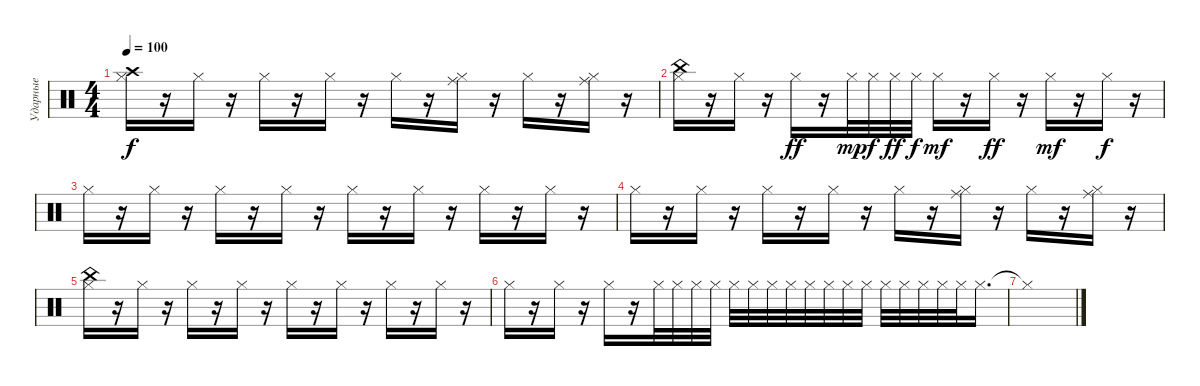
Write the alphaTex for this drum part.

\track ("Ударные" "Ударные") {instrument percussion}
\staff {score}
\articulation defaults
\ts (4 4)
\tempo 100
\clef neutral
\ks c
("Crash high (hit)" "Hi-Hat (closed)").16{dy f} r.16 "Hi-Hat (closed)".16 r.16 "Hi-Hat (closed)".16 r.16 "Hi-Hat (closed)".16 r.16 "Hi-Hat (closed)".16 r.16 ("Ride (middle)" "Hi-Hat (closed)").16 r.16 "Hi-Hat (closed)".16 r.16 ("Ride (middle)" "Hi-Hat (closed)").16 r.16 |
("China (hit)" "Hi-Hat (closed)").16 r.16 "Hi-Hat (closed)".16 r.16 "Hi-Hat (closed)".16{dy ff} r.16 "Hi-Hat (closed)".32{dy mp} "Hi-Hat (closed)".32{dy f} "Hi-Hat (closed)".32{dy ff} "Hi-Hat (closed)".32{dy f} "Hi-Hat (closed)".16{dy mf} r.16 "Hi-Hat (closed)".16{dy ff} r.16 "Hi-Hat (closed)".16{dy mf} r.16 "Hi-Hat (closed)".16{dy f} r.16 |
"Hi-Hat (closed)".16 r.16 "Hi-Hat (closed)".16 r.16 "Hi-Hat (closed)".16 r.16 "Hi-Hat (closed)".16 r.16 "Hi-Hat (closed)".16 r.16 "Hi-Hat (closed)".16 r.16 "Hi-Hat (closed)".16 r.16 "Hi-Hat (closed)".16 r.16 |
"Hi-Hat (closed)".16 r.16 "Hi-Hat (closed)".16 r.16 "Hi-Hat (closed)".16 r.16 "Hi-Hat (closed)".16 r.16 "Hi-Hat (closed)".16 r.16 ("Ride (middle)" "Hi-Hat (closed)").16 r.16 "Hi-Hat (closed)".16 r.16 ("Ride (middle)" "Hi-Hat (closed)").16 r.16 |
("China (hit)" "Hi-Hat (closed)").16 r.16 "Hi-Hat (closed)".16 r.16 "Hi-Hat (closed)".16 r.16 "Hi-Hat (closed)".16 r.16 "Hi-Hat (closed)".16 r.16 "Hi-Hat (closed)".16 r.16 "Hi-Hat (closed)".16 r.16 "Hi-Hat (closed)".16 r.16 |
"Hi-Hat (closed)".16 r.16 "Hi-Hat (closed)".16 r.16 "Hi-Hat (closed)".16 r.16 "Hi-Hat (closed)".32 "Hi-Hat (closed)".32 "Hi-Hat (closed)".32 "Hi-Hat (closed)".32 "Hi-Hat (closed)".32 "Hi-Hat (closed)".32 "Hi-Hat (closed)".32 "Hi-Hat (closed)".32 "Hi-Hat (closed)".32 "Hi-Hat (closed)".32 "Hi-Hat (closed)".32 "Hi-Hat (closed)".32 "Hi-Hat (closed)".32 "Hi-Hat (closed)".32 "Hi-Hat (closed)".32 "Hi-Hat (closed)".32 "Hi-Hat (closed)".32 "Hi-Hat (closed)".16{d} |
"Hi-Hat (closed)"{t}.1
